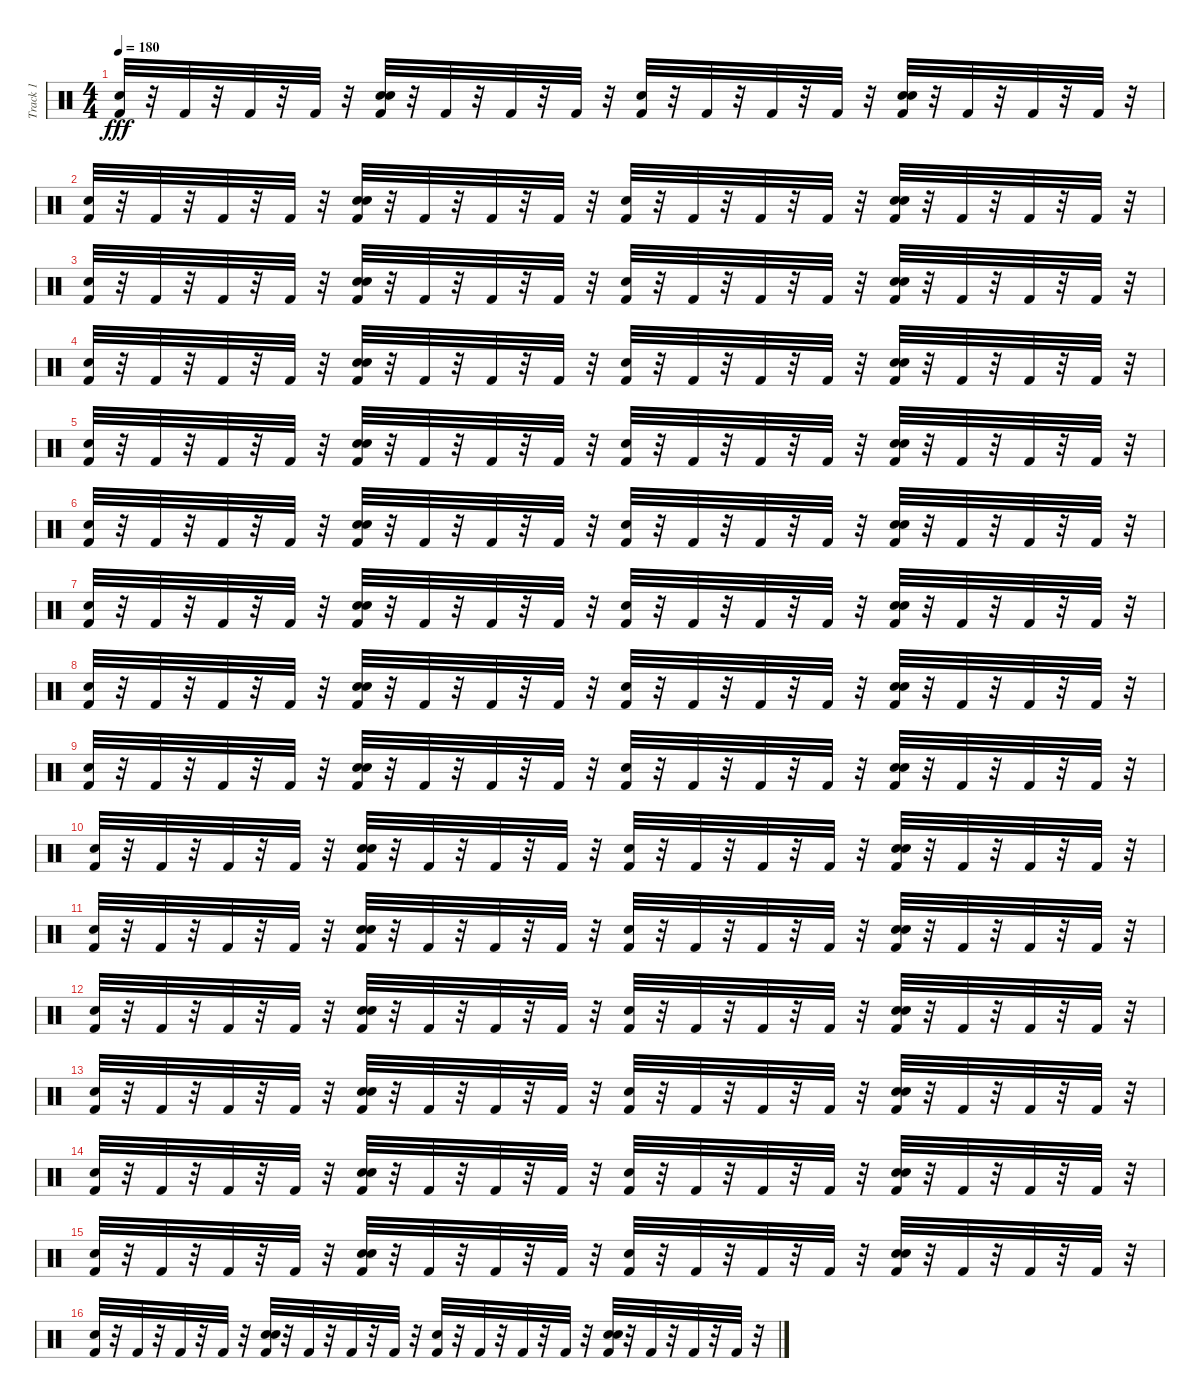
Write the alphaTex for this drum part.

\track ("Track 1" "Track 1") {mute instrument percussion}
\staff {score}
\articulation defaults
\ts (4 4)
\tempo 180
\clef neutral
\ks c
("Kick (hit) 2" "Snare (hit)").32{dy fff} r.32 "Kick (hit) 2".32 r.32 "Kick (hit) 2".32 r.32 "Kick (hit) 2".32 r.32 ("Snare (hit)" "Kick (hit) 2" "Snare (hit) 2").32 r.32 "Kick (hit) 2".32 r.32 "Kick (hit) 2".32 r.32 "Kick (hit) 2".32 r.32 ("Kick (hit) 2" "Snare (hit)").32 r.32 "Kick (hit) 2".32 r.32 "Kick (hit) 2".32 r.32 "Kick (hit) 2".32 r.32 ("Snare (hit)" "Kick (hit) 2" "Snare (hit) 2").32 r.32 "Kick (hit) 2".32 r.32 "Kick (hit) 2".32 r.32 "Kick (hit) 2".32 r.32 |
("Kick (hit) 2" "Snare (hit)").32 r.32 "Kick (hit) 2".32 r.32 "Kick (hit) 2".32 r.32 "Kick (hit) 2".32 r.32 ("Snare (hit)" "Kick (hit) 2" "Snare (hit) 2").32 r.32 "Kick (hit) 2".32 r.32 "Kick (hit) 2".32 r.32 "Kick (hit) 2".32 r.32 ("Kick (hit) 2" "Snare (hit)").32 r.32 "Kick (hit) 2".32 r.32 "Kick (hit) 2".32 r.32 "Kick (hit) 2".32 r.32 ("Snare (hit) 2" "Snare (hit)" "Kick (hit) 2").32 r.32 "Kick (hit) 2".32 r.32 "Kick (hit) 2".32 r.32 "Kick (hit) 2".32 r.32 |
("Kick (hit) 2" "Snare (hit)").32 r.32 "Kick (hit) 2".32 r.32 "Kick (hit) 2".32 r.32 "Kick (hit) 2".32 r.32 ("Snare (hit)" "Snare (hit) 2" "Kick (hit) 2").32 r.32 "Kick (hit) 2".32 r.32 "Kick (hit) 2".32 r.32 "Kick (hit) 2".32 r.32 ("Kick (hit) 2" "Snare (hit)").32 r.32 "Kick (hit) 2".32 r.32 "Kick (hit) 2".32 r.32 "Kick (hit) 2".32 r.32 ("Snare (hit) 2" "Snare (hit)" "Kick (hit) 2").32 r.32 "Kick (hit) 2".32 r.32 "Kick (hit) 2".32 r.32 "Kick (hit) 2".32 r.32 |
("Kick (hit) 2" "Snare (hit)").32 r.32 "Kick (hit) 2".32 r.32 "Kick (hit) 2".32 r.32 "Kick (hit) 2".32 r.32 ("Snare (hit)" "Kick (hit) 2" "Snare (hit) 2").32 r.32 "Kick (hit) 2".32 r.32 "Kick (hit) 2".32 r.32 "Kick (hit) 2".32 r.32 ("Kick (hit) 2" "Snare (hit)").32 r.32 "Kick (hit) 2".32 r.32 "Kick (hit) 2".32 r.32 "Kick (hit) 2".32 r.32 ("Snare (hit)" "Snare (hit) 2" "Kick (hit) 2").32 r.32 "Kick (hit) 2".32 r.32 "Kick (hit) 2".32 r.32 "Kick (hit) 2".32 r.32 |
("Kick (hit) 2" "Snare (hit)").32 r.32 "Kick (hit) 2".32 r.32 "Kick (hit) 2".32 r.32 "Kick (hit) 2".32 r.32 ("Snare (hit)" "Kick (hit) 2" "Snare (hit) 2").32 r.32 "Kick (hit) 2".32 r.32 "Kick (hit) 2".32 r.32 "Kick (hit) 2".32 r.32 ("Kick (hit) 2" "Snare (hit)").32 r.32 "Kick (hit) 2".32 r.32 "Kick (hit) 2".32 r.32 "Kick (hit) 2".32 r.32 ("Snare (hit)" "Kick (hit) 2" "Snare (hit) 2").32 r.32 "Kick (hit) 2".32 r.32 "Kick (hit) 2".32 r.32 "Kick (hit) 2".32 r.32 |
("Kick (hit) 2" "Snare (hit)").32 r.32 "Kick (hit) 2".32 r.32 "Kick (hit) 2".32 r.32 "Kick (hit) 2".32 r.32 ("Snare (hit)" "Kick (hit) 2" "Snare (hit) 2").32 r.32 "Kick (hit) 2".32 r.32 "Kick (hit) 2".32 r.32 "Kick (hit) 2".32 r.32 ("Kick (hit) 2" "Snare (hit)").32 r.32 "Kick (hit) 2".32 r.32 "Kick (hit) 2".32 r.32 "Kick (hit) 2".32 r.32 ("Snare (hit) 2" "Snare (hit)" "Kick (hit) 2").32 r.32 "Kick (hit) 2".32 r.32 "Kick (hit) 2".32 r.32 "Kick (hit) 2".32 r.32 |
("Kick (hit) 2" "Snare (hit)").32 r.32 "Kick (hit) 2".32 r.32 "Kick (hit) 2".32 r.32 "Kick (hit) 2".32 r.32 ("Snare (hit)" "Snare (hit) 2" "Kick (hit) 2").32 r.32 "Kick (hit) 2".32 r.32 "Kick (hit) 2".32 r.32 "Kick (hit) 2".32 r.32 ("Kick (hit) 2" "Snare (hit)").32 r.32 "Kick (hit) 2".32 r.32 "Kick (hit) 2".32 r.32 "Kick (hit) 2".32 r.32 ("Snare (hit) 2" "Snare (hit)" "Kick (hit) 2").32 r.32 "Kick (hit) 2".32 r.32 "Kick (hit) 2".32 r.32 "Kick (hit) 2".32 r.32 |
("Kick (hit) 2" "Snare (hit)").32 r.32 "Kick (hit) 2".32 r.32 "Kick (hit) 2".32 r.32 "Kick (hit) 2".32 r.32 ("Snare (hit)" "Kick (hit) 2" "Snare (hit) 2").32 r.32 "Kick (hit) 2".32 r.32 "Kick (hit) 2".32 r.32 "Kick (hit) 2".32 r.32 ("Kick (hit) 2" "Snare (hit)").32 r.32 "Kick (hit) 2".32 r.32 "Kick (hit) 2".32 r.32 "Kick (hit) 2".32 r.32 ("Snare (hit)" "Snare (hit) 2" "Kick (hit) 2").32 r.32 "Kick (hit) 2".32 r.32 "Kick (hit) 2".32 r.32 "Kick (hit) 2".32 r.32 |
("Kick (hit) 2" "Snare (hit)").32 r.32 "Kick (hit) 2".32 r.32 "Kick (hit) 2".32 r.32 "Kick (hit) 2".32 r.32 ("Snare (hit)" "Kick (hit) 2" "Snare (hit) 2").32 r.32 "Kick (hit) 2".32 r.32 "Kick (hit) 2".32 r.32 "Kick (hit) 2".32 r.32 ("Kick (hit) 2" "Snare (hit)").32 r.32 "Kick (hit) 2".32 r.32 "Kick (hit) 2".32 r.32 "Kick (hit) 2".32 r.32 ("Snare (hit)" "Kick (hit) 2" "Snare (hit) 2").32 r.32 "Kick (hit) 2".32 r.32 "Kick (hit) 2".32 r.32 "Kick (hit) 2".32 r.32 |
("Kick (hit) 2" "Snare (hit)").32 r.32 "Kick (hit) 2".32 r.32 "Kick (hit) 2".32 r.32 "Kick (hit) 2".32 r.32 ("Snare (hit)" "Kick (hit) 2" "Snare (hit) 2").32 r.32 "Kick (hit) 2".32 r.32 "Kick (hit) 2".32 r.32 "Kick (hit) 2".32 r.32 ("Kick (hit) 2" "Snare (hit)").32 r.32 "Kick (hit) 2".32 r.32 "Kick (hit) 2".32 r.32 "Kick (hit) 2".32 r.32 ("Snare (hit) 2" "Snare (hit)" "Kick (hit) 2").32 r.32 "Kick (hit) 2".32 r.32 "Kick (hit) 2".32 r.32 "Kick (hit) 2".32 r.32 |
("Kick (hit) 2" "Snare (hit)").32 r.32 "Kick (hit) 2".32 r.32 "Kick (hit) 2".32 r.32 "Kick (hit) 2".32 r.32 ("Snare (hit)" "Snare (hit) 2" "Kick (hit) 2").32 r.32 "Kick (hit) 2".32 r.32 "Kick (hit) 2".32 r.32 "Kick (hit) 2".32 r.32 ("Kick (hit) 2" "Snare (hit)").32 r.32 "Kick (hit) 2".32 r.32 "Kick (hit) 2".32 r.32 "Kick (hit) 2".32 r.32 ("Snare (hit) 2" "Snare (hit)" "Kick (hit) 2").32 r.32 "Kick (hit) 2".32 r.32 "Kick (hit) 2".32 r.32 "Kick (hit) 2".32 r.32 |
("Kick (hit) 2" "Snare (hit)").32 r.32 "Kick (hit) 2".32 r.32 "Kick (hit) 2".32 r.32 "Kick (hit) 2".32 r.32 ("Snare (hit)" "Kick (hit) 2" "Snare (hit) 2").32 r.32 "Kick (hit) 2".32 r.32 "Kick (hit) 2".32 r.32 "Kick (hit) 2".32 r.32 ("Kick (hit) 2" "Snare (hit)").32 r.32 "Kick (hit) 2".32 r.32 "Kick (hit) 2".32 r.32 "Kick (hit) 2".32 r.32 ("Snare (hit)" "Snare (hit) 2" "Kick (hit) 2").32 r.32 "Kick (hit) 2".32 r.32 "Kick (hit) 2".32 r.32 "Kick (hit) 2".32 r.32 |
("Kick (hit) 2" "Snare (hit)").32 r.32 "Kick (hit) 2".32 r.32 "Kick (hit) 2".32 r.32 "Kick (hit) 2".32 r.32 ("Snare (hit)" "Kick (hit) 2" "Snare (hit) 2").32 r.32 "Kick (hit) 2".32 r.32 "Kick (hit) 2".32 r.32 "Kick (hit) 2".32 r.32 ("Kick (hit) 2" "Snare (hit)").32 r.32 "Kick (hit) 2".32 r.32 "Kick (hit) 2".32 r.32 "Kick (hit) 2".32 r.32 ("Snare (hit)" "Kick (hit) 2" "Snare (hit) 2").32 r.32 "Kick (hit) 2".32 r.32 "Kick (hit) 2".32 r.32 "Kick (hit) 2".32 r.32 |
("Kick (hit) 2" "Snare (hit)").32 r.32 "Kick (hit) 2".32 r.32 "Kick (hit) 2".32 r.32 "Kick (hit) 2".32 r.32 ("Snare (hit)" "Kick (hit) 2" "Snare (hit) 2").32 r.32 "Kick (hit) 2".32 r.32 "Kick (hit) 2".32 r.32 "Kick (hit) 2".32 r.32 ("Kick (hit) 2" "Snare (hit)").32 r.32 "Kick (hit) 2".32 r.32 "Kick (hit) 2".32 r.32 "Kick (hit) 2".32 r.32 ("Snare (hit) 2" "Snare (hit)" "Kick (hit) 2").32 r.32 "Kick (hit) 2".32 r.32 "Kick (hit) 2".32 r.32 "Kick (hit) 2".32 r.32 |
("Kick (hit) 2" "Snare (hit)").32 r.32 "Kick (hit) 2".32 r.32 "Kick (hit) 2".32 r.32 "Kick (hit) 2".32 r.32 ("Snare (hit)" "Snare (hit) 2" "Kick (hit) 2").32 r.32 "Kick (hit) 2".32 r.32 "Kick (hit) 2".32 r.32 "Kick (hit) 2".32 r.32 ("Kick (hit) 2" "Snare (hit)").32 r.32 "Kick (hit) 2".32 r.32 "Kick (hit) 2".32 r.32 "Kick (hit) 2".32 r.32 ("Snare (hit) 2" "Snare (hit)" "Kick (hit) 2").32 r.32 "Kick (hit) 2".32 r.32 "Kick (hit) 2".32 r.32 "Kick (hit) 2".32 r.32 |
("Kick (hit) 2" "Snare (hit)").32 r.32 "Kick (hit) 2".32 r.32 "Kick (hit) 2".32 r.32 "Kick (hit) 2".32 r.32 ("Snare (hit)" "Kick (hit) 2" "Snare (hit) 2").32 r.32 "Kick (hit) 2".32 r.32 "Kick (hit) 2".32 r.32 "Kick (hit) 2".32 r.32 ("Kick (hit) 2" "Snare (hit)").32 r.32 "Kick (hit) 2".32 r.32 "Kick (hit) 2".32 r.32 "Kick (hit) 2".32 r.32 ("Snare (hit)" "Snare (hit) 2" "Kick (hit) 2").32 r.32 "Kick (hit) 2".32 r.32 "Kick (hit) 2".32 r.32 "Kick (hit) 2".32 r.32
